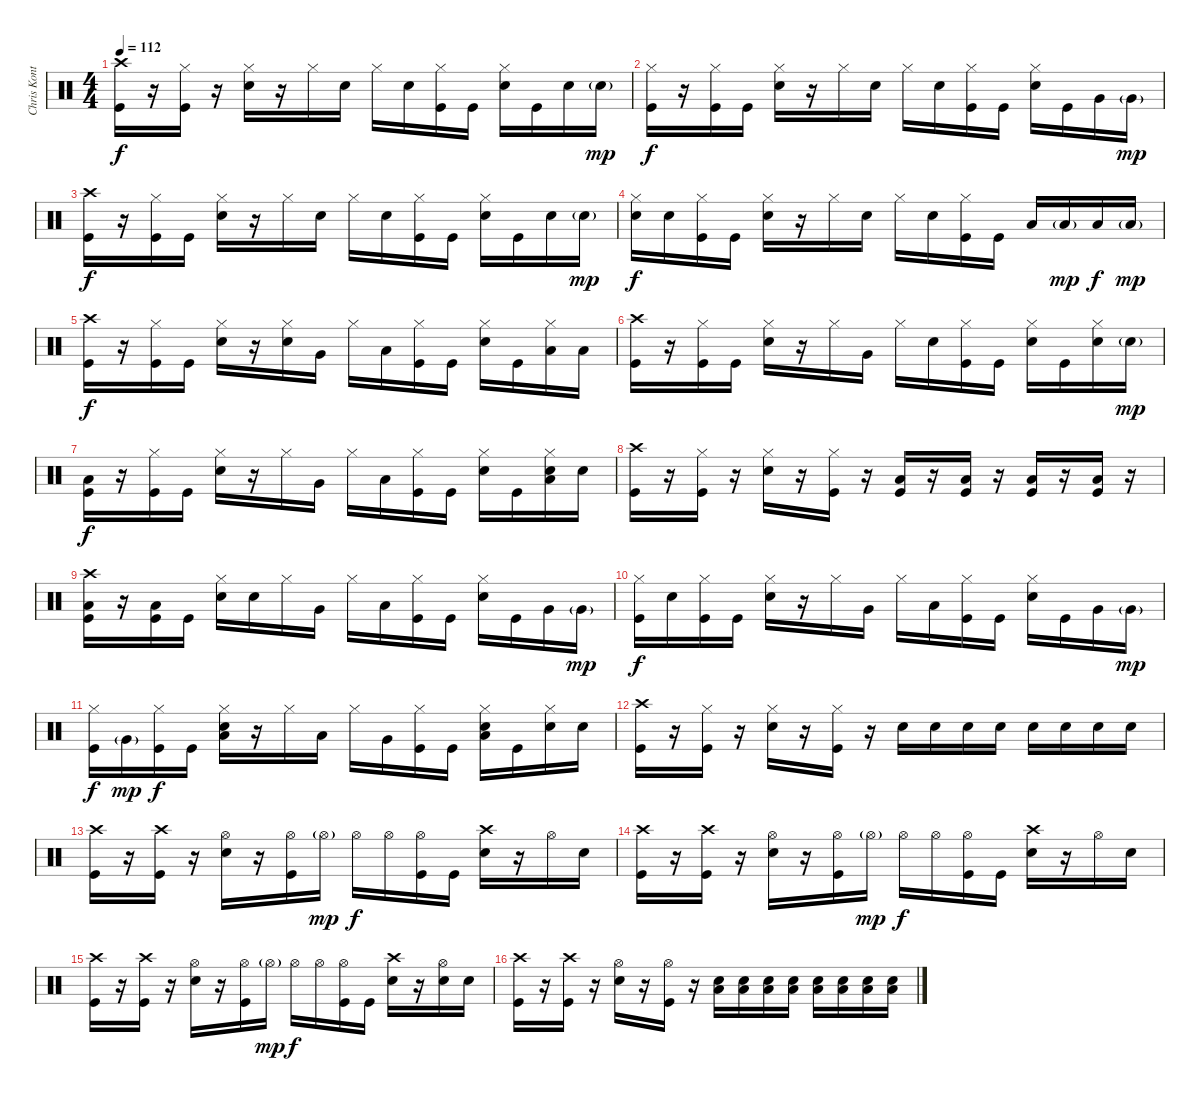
\track ("Chris Kontos - Drums" "Chris Kont") {instrument percussion}
\staff {score}
\articulation defaults
\ts (4 4)
\tempo 112
\clef neutral
\ks c
("Crash high (hit)" "Kick (hit)").16{dy f} r.16 ("Hi-Hat (closed)" "Kick (hit)").16 r.16 ("Hi-Hat (closed)" "Snare (hit) 2").16 r.16 "Hi-Hat (closed)".16 "Snare (hit) 2".16 "Hi-Hat (closed)".16 "Snare (hit) 2".16 ("Hi-Hat (closed)" "Kick (hit)").16 "Kick (hit)".16 ("Hi-Hat (closed)" "Snare (hit) 2").16 "Kick (hit)".16 "Snare (hit) 2".16 "Snare (hit) 2"{g}.16{dy mp} |
("Hi-Hat (closed)" "Kick (hit)").16{dy f} r.16 ("Hi-Hat (closed)" "Kick (hit)").16 "Kick (hit)".16 ("Hi-Hat (closed)" "Snare (hit) 2").16 r.16 "Hi-Hat (closed)".16 "Snare (hit) 2".16 "Hi-Hat (closed)".16 "Snare (hit) 2".16 ("Hi-Hat (closed)" "Kick (hit)").16 "Kick (hit)".16 ("Hi-Hat (closed)" "Snare (hit) 2").16 "Kick (hit)".16 "Very Low Tom (hit)".16 "Very Low Tom (hit)"{g}.16{dy mp} |
("Crash high (hit)" "Kick (hit)").16{dy f} r.16 ("Hi-Hat (closed)" "Kick (hit)").16 "Kick (hit)".16 ("Hi-Hat (closed)" "Snare (hit) 2").16 r.16 "Hi-Hat (closed)".16 "Snare (hit) 2".16 "Hi-Hat (closed)".16 "Snare (hit) 2".16 ("Hi-Hat (closed)" "Kick (hit)").16 "Kick (hit)".16 ("Hi-Hat (closed)" "Snare (hit) 2").16 "Kick (hit)".16 "Snare (hit) 2".16 "Snare (hit) 2"{g}.16{dy mp} |
("Hi-Hat (closed)" "Snare (hit) 2").16{dy f} "Snare (hit) 2".16 ("Hi-Hat (closed)" "Kick (hit)").16 "Kick (hit)".16 ("Hi-Hat (closed)" "Snare (hit) 2").16 r.16 "Hi-Hat (closed)".16 "Snare (hit) 2".16 "Hi-Hat (closed)".16 "Snare (hit) 2".16 ("Hi-Hat (closed)" "Kick (hit)").16 "Kick (hit)".16 "Low Tom (hit)".16 "Low Tom (hit)"{g}.16{dy mp} "Low Floor Tom (hit)".16{dy f} "Low Floor Tom (hit)"{g}.16{dy mp} |
("Crash high (hit)" "Kick (hit)").16{dy f} r.16 ("Hi-Hat (closed)" "Kick (hit)").16 "Kick (hit)".16 ("Hi-Hat (closed)" "Snare (hit) 2").16 r.16 ("Hi-Hat (closed)" "Snare (hit) 2").16 "Very Low Tom (hit)".16 "Hi-Hat (closed)".16 "Low Floor Tom (hit)".16 ("Hi-Hat (closed)" "Kick (hit)").16 "Kick (hit)".16 ("Hi-Hat (closed)" "Snare (hit) 2").16 "Kick (hit)".16 ("Hi-Hat (closed)" "Low Tom (hit)").16 "Low Tom (hit)".16 |
("Crash high (hit)" "Kick (hit)").16 r.16 ("Hi-Hat (closed)" "Kick (hit)").16 "Kick (hit)".16 ("Hi-Hat (closed)" "Snare (hit) 2").16 r.16 "Hi-Hat (closed)".16 "Very Low Tom (hit)".16 "Hi-Hat (closed)".16 "Snare (hit) 2".16 ("Hi-Hat (closed)" "Kick (hit)").16 "Kick (hit)".16 ("Hi-Hat (closed)" "Snare (hit) 2").16 "Kick (hit)".16 ("Hi-Hat (closed)" "Snare (hit) 2").16 "Snare (hit) 2"{g}.16{dy mp} |
("Low Floor Tom (hit)" "Kick (hit)").16{dy f} r.16 ("Hi-Hat (closed)" "Kick (hit)").16 "Kick (hit)".16 ("Hi-Hat (closed)" "Snare (hit) 2").16 r.16 "Hi-Hat (closed)".16 "Very Low Tom (hit)".16 "Hi-Hat (closed)".16 "Low Floor Tom (hit)".16 ("Hi-Hat (closed)" "Kick (hit)").16 "Kick (hit)".16 ("Hi-Hat (closed)" "Snare (hit) 2").16 "Kick (hit)".16 ("Hi-Hat (closed)" "Low Tom (hit)" "Snare (hit) 2").16 "Snare (hit) 2".16 |
("Crash high (hit)" "Kick (hit)").16 r.16 ("Hi-Hat (closed)" "Kick (hit)").16 r.16 ("Hi-Hat (closed)" "Snare (hit) 2").16 r.16 ("Hi-Hat (closed)" "Kick (hit)").16 r.16 ("Low Tom (hit)" "Kick (hit)").16 r.16 ("Low Tom (hit)" "Kick (hit)").16 r.16 ("Low Tom (hit)" "Kick (hit)").16 r.16 ("Low Tom (hit)" "Kick (hit)").16 r.16 |
("Crash high (hit)" "Low Tom (hit)" "Kick (hit)").16 r.16 ("Low Tom (hit)" "Kick (hit)").16 "Kick (hit)".16 ("Hi-Hat (closed)" "Snare (hit) 2").16 "Snare (hit) 2".16 "Hi-Hat (closed)".16 "Very Low Tom (hit)".16 "Hi-Hat (closed)".16 "Low Floor Tom (hit)".16 ("Hi-Hat (closed)" "Kick (hit)").16 "Kick (hit)".16 ("Hi-Hat (closed)" "Snare (hit) 2").16 "Kick (hit)".16 "Very Low Tom (hit)".16 "Very Low Tom (hit)"{g}.16{dy mp} |
("Hi-Hat (closed)" "Kick (hit)").16{dy f} "Snare (hit) 2".16 ("Hi-Hat (closed)" "Kick (hit)").16 "Kick (hit)".16 ("Hi-Hat (closed)" "Snare (hit) 2").16 r.16 "Hi-Hat (closed)".16 "Very Low Tom (hit)".16 "Hi-Hat (closed)".16 "Low Floor Tom (hit)".16 ("Hi-Hat (closed)" "Kick (hit)").16 "Kick (hit)".16 ("Hi-Hat (closed)" "Snare (hit) 2").16 "Kick (hit)".16 "Very Low Tom (hit)".16 "Very Low Tom (hit)"{g}.16{dy mp} |
("Hi-Hat (closed)" "Kick (hit)").16{dy f} "Very Low Tom (hit)"{g}.16{dy mp} ("Hi-Hat (closed)" "Kick (hit)").16{dy f} "Kick (hit)".16 ("Hi-Hat (closed)" "Low Tom (hit)" "Snare (hit) 2").16 r.16 "Hi-Hat (closed)".16 "Low Floor Tom (hit)".16 "Hi-Hat (closed)".16 "Very Low Tom (hit)".16 ("Hi-Hat (closed)" "Kick (hit)").16 "Kick (hit)".16 ("Hi-Hat (closed)" "Low Tom (hit)" "Snare (hit) 2").16 "Kick (hit)".16 ("Hi-Hat (closed)" "Snare (hit) 2").16 "Snare (hit) 2".16 |
("Crash high (hit)" "Kick (hit)").16 r.16 ("Hi-Hat (closed)" "Kick (hit)").16 r.16 ("Hi-Hat (closed)" "Snare (hit) 2").16 r.16 ("Hi-Hat (closed)" "Kick (hit)").16 r.16 "Snare (hit) 2".16 "Snare (hit) 2".16 "Snare (hit) 2".16 "Snare (hit) 2".16 "Snare (hit) 2".16 "Snare (hit) 2".16 "Snare (hit) 2".16 "Snare (hit) 2".16 |
("Crash high (hit)" "Kick (hit)").16 r.16 ("Crash high (hit)" "Kick (hit)").16 r.16 ("Hi-Hat (open)" "Snare (hit) 2").16 r.16 ("Hi-Hat (open)" "Kick (hit)").16 "Hi-Hat (open)"{g}.16{dy mp} "Hi-Hat (open)".16{dy f} "Hi-Hat (open)".16 ("Hi-Hat (open)" "Kick (hit)").16 "Kick (hit)".16 ("Crash high (hit)" "Snare (hit) 2").16 r.16 "Hi-Hat (open)".16 "Snare (hit) 2".16 |
("Crash high (hit)" "Kick (hit)").16 r.16 ("Crash high (hit)" "Kick (hit)").16 r.16 ("Hi-Hat (open)" "Snare (hit) 2").16 r.16 ("Hi-Hat (open)" "Kick (hit)").16 "Hi-Hat (open)"{g}.16{dy mp} "Hi-Hat (open)".16{dy f} "Hi-Hat (open)".16 ("Hi-Hat (open)" "Kick (hit)").16 "Kick (hit)".16 ("Crash high (hit)" "Snare (hit) 2").16 r.16 "Hi-Hat (open)".16 "Snare (hit) 2".16 |
("Crash high (hit)" "Kick (hit)").16 r.16 ("Crash high (hit)" "Kick (hit)").16 r.16 ("Hi-Hat (open)" "Snare (hit) 2").16 r.16 ("Hi-Hat (open)" "Kick (hit)").16 "Hi-Hat (open)"{g}.16{dy mp} "Hi-Hat (open)".16{dy f} "Hi-Hat (open)".16 ("Hi-Hat (open)" "Kick (hit)").16 "Kick (hit)".16 ("Crash high (hit)" "Snare (hit) 2").16 r.16 ("Hi-Hat (open)" "Snare (hit) 2").16 "Snare (hit) 2".16 |
("Crash high (hit)" "Kick (hit)").16 r.16 ("Crash high (hit)" "Kick (hit)").16 r.16 ("Hi-Hat (open)" "Snare (hit) 2").16 r.16 ("Hi-Hat (open)" "Kick (hit)").16 r.16 ("Low Tom (hit)" "Snare (hit) 2").16 ("Low Tom (hit)" "Snare (hit) 2").16 ("Low Tom (hit)" "Snare (hit) 2").16 ("Low Tom (hit)" "Snare (hit) 2").16 ("Low Tom (hit)" "Snare (hit) 2").16 ("Low Tom (hit)" "Snare (hit) 2").16 ("Low Tom (hit)" "Snare (hit) 2").16 ("Low Tom (hit)" "Snare (hit) 2").16
